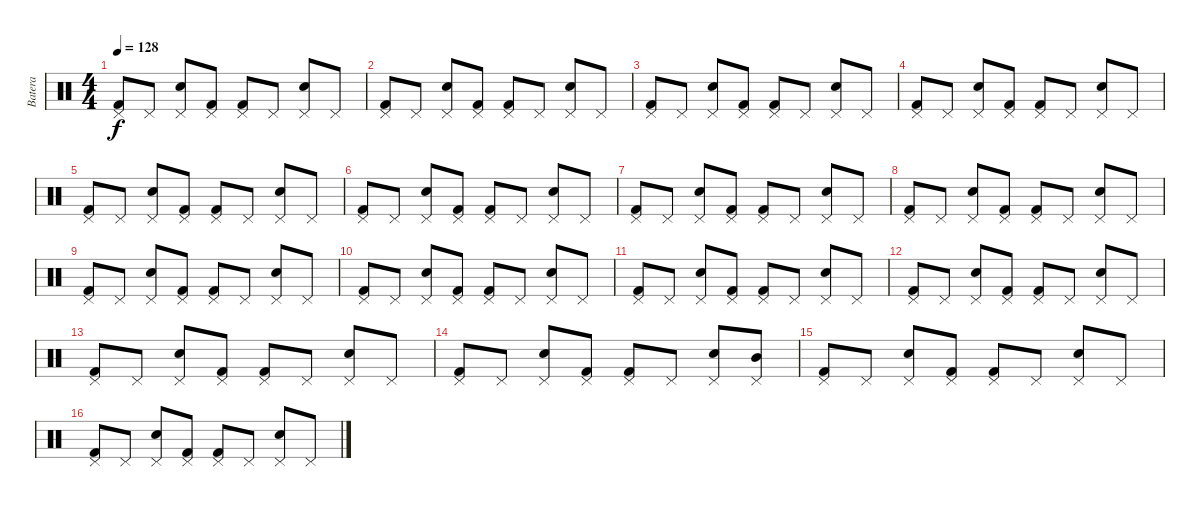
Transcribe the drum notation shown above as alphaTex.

\track ("Batera" "Batera") {instrument percussion}
\staff {score}
\articulation defaults
\ts (4 4)
\tempo 128
\clef neutral
\ks c
("Pedal Hi-Hat (hit)" "Kick (hit) 2").8{dy f} "Pedal Hi-Hat (hit)".8 ("Pedal Hi-Hat (hit)" "Snare (hit) 2").8 ("Pedal Hi-Hat (hit)" "Kick (hit) 2").8 ("Pedal Hi-Hat (hit)" "Kick (hit) 2").8 "Pedal Hi-Hat (hit)".8 ("Pedal Hi-Hat (hit)" "Snare (hit) 2").8 "Pedal Hi-Hat (hit)".8 |
("Pedal Hi-Hat (hit)" "Kick (hit) 2").8 "Pedal Hi-Hat (hit)".8 ("Pedal Hi-Hat (hit)" "Snare (hit) 2").8 ("Pedal Hi-Hat (hit)" "Kick (hit) 2").8 ("Pedal Hi-Hat (hit)" "Kick (hit) 2").8 "Pedal Hi-Hat (hit)".8 ("Pedal Hi-Hat (hit)" "Snare (hit) 2").8 "Pedal Hi-Hat (hit)".8 |
("Pedal Hi-Hat (hit)" "Kick (hit) 2").8 "Pedal Hi-Hat (hit)".8 ("Pedal Hi-Hat (hit)" "Snare (hit) 2").8 ("Pedal Hi-Hat (hit)" "Kick (hit) 2").8 ("Pedal Hi-Hat (hit)" "Kick (hit) 2").8 "Pedal Hi-Hat (hit)".8 ("Pedal Hi-Hat (hit)" "Snare (hit) 2").8 "Pedal Hi-Hat (hit)".8 |
("Pedal Hi-Hat (hit)" "Kick (hit) 2").8 "Pedal Hi-Hat (hit)".8 ("Pedal Hi-Hat (hit)" "Snare (hit) 2").8 ("Pedal Hi-Hat (hit)" "Kick (hit) 2").8 ("Pedal Hi-Hat (hit)" "Kick (hit) 2").8 "Pedal Hi-Hat (hit)".8 ("Pedal Hi-Hat (hit)" "Snare (hit) 2").8 "Pedal Hi-Hat (hit)".8 |
("Pedal Hi-Hat (hit)" "Kick (hit) 2").8 "Pedal Hi-Hat (hit)".8 ("Pedal Hi-Hat (hit)" "Snare (hit) 2").8 ("Pedal Hi-Hat (hit)" "Kick (hit) 2").8 ("Pedal Hi-Hat (hit)" "Kick (hit) 2").8 "Pedal Hi-Hat (hit)".8 ("Pedal Hi-Hat (hit)" "Snare (hit) 2").8 "Pedal Hi-Hat (hit)".8 |
("Pedal Hi-Hat (hit)" "Kick (hit) 2").8 "Pedal Hi-Hat (hit)".8 ("Pedal Hi-Hat (hit)" "Snare (hit) 2").8 ("Pedal Hi-Hat (hit)" "Kick (hit) 2").8 ("Pedal Hi-Hat (hit)" "Kick (hit) 2").8 "Pedal Hi-Hat (hit)".8 ("Pedal Hi-Hat (hit)" "Snare (hit) 2").8 "Pedal Hi-Hat (hit)".8 |
("Pedal Hi-Hat (hit)" "Kick (hit) 2").8 "Pedal Hi-Hat (hit)".8 ("Pedal Hi-Hat (hit)" "Snare (hit) 2").8 ("Pedal Hi-Hat (hit)" "Kick (hit) 2").8 ("Pedal Hi-Hat (hit)" "Kick (hit) 2").8 "Pedal Hi-Hat (hit)".8 ("Pedal Hi-Hat (hit)" "Snare (hit) 2").8 "Pedal Hi-Hat (hit)".8 |
("Pedal Hi-Hat (hit)" "Kick (hit) 2").8 "Pedal Hi-Hat (hit)".8 ("Pedal Hi-Hat (hit)" "Snare (hit) 2").8 ("Pedal Hi-Hat (hit)" "Kick (hit) 2").8 ("Pedal Hi-Hat (hit)" "Kick (hit) 2").8 "Pedal Hi-Hat (hit)".8 ("Pedal Hi-Hat (hit)" "Snare (hit) 2").8 "Pedal Hi-Hat (hit)".8 |
("Pedal Hi-Hat (hit)" "Kick (hit) 2").8 "Pedal Hi-Hat (hit)".8 ("Pedal Hi-Hat (hit)" "Snare (hit) 2").8 ("Pedal Hi-Hat (hit)" "Kick (hit) 2").8 ("Pedal Hi-Hat (hit)" "Kick (hit) 2").8 "Pedal Hi-Hat (hit)".8 ("Pedal Hi-Hat (hit)" "Snare (hit) 2").8 "Pedal Hi-Hat (hit)".8 |
("Pedal Hi-Hat (hit)" "Kick (hit) 2").8 "Pedal Hi-Hat (hit)".8 ("Pedal Hi-Hat (hit)" "Snare (hit) 2").8 ("Pedal Hi-Hat (hit)" "Kick (hit) 2").8 ("Pedal Hi-Hat (hit)" "Kick (hit) 2").8 "Pedal Hi-Hat (hit)".8 ("Pedal Hi-Hat (hit)" "Snare (hit) 2").8 "Pedal Hi-Hat (hit)".8 |
("Pedal Hi-Hat (hit)" "Kick (hit) 2").8 "Pedal Hi-Hat (hit)".8 ("Pedal Hi-Hat (hit)" "Snare (hit) 2").8 ("Pedal Hi-Hat (hit)" "Kick (hit) 2").8 ("Pedal Hi-Hat (hit)" "Kick (hit) 2").8 "Pedal Hi-Hat (hit)".8 ("Pedal Hi-Hat (hit)" "Snare (hit) 2").8 "Pedal Hi-Hat (hit)".8 |
("Pedal Hi-Hat (hit)" "Kick (hit) 2").8 "Pedal Hi-Hat (hit)".8 ("Pedal Hi-Hat (hit)" "Snare (hit) 2").8 ("Pedal Hi-Hat (hit)" "Kick (hit) 2").8 ("Pedal Hi-Hat (hit)" "Kick (hit) 2").8 "Pedal Hi-Hat (hit)".8 ("Pedal Hi-Hat (hit)" "Snare (hit) 2").8 "Pedal Hi-Hat (hit)".8 |
("Pedal Hi-Hat (hit)" "Kick (hit) 2").8 "Pedal Hi-Hat (hit)".8 ("Pedal Hi-Hat (hit)" "Snare (hit) 2").8 ("Pedal Hi-Hat (hit)" "Kick (hit) 2").8 ("Pedal Hi-Hat (hit)" "Kick (hit) 2").8 "Pedal Hi-Hat (hit)".8 ("Pedal Hi-Hat (hit)" "Snare (hit) 2").8 "Pedal Hi-Hat (hit)".8 |
("Pedal Hi-Hat (hit)" "Kick (hit) 2").8 "Pedal Hi-Hat (hit)".8 ("Pedal Hi-Hat (hit)" "Snare (hit) 2").8 ("Pedal Hi-Hat (hit)" "Kick (hit) 2").8 ("Pedal Hi-Hat (hit)" "Kick (hit) 2").8 "Pedal Hi-Hat (hit)".8 ("Pedal Hi-Hat (hit)" "Snare (hit) 2").8 ("Mid Tom (hit)" "Pedal Hi-Hat (hit)").8 |
("Pedal Hi-Hat (hit)" "Kick (hit) 2").8 "Pedal Hi-Hat (hit)".8 ("Pedal Hi-Hat (hit)" "Snare (hit) 2").8 ("Pedal Hi-Hat (hit)" "Kick (hit) 2").8 ("Pedal Hi-Hat (hit)" "Kick (hit) 2").8 "Pedal Hi-Hat (hit)".8 ("Pedal Hi-Hat (hit)" "Snare (hit) 2").8 "Pedal Hi-Hat (hit)".8 |
("Pedal Hi-Hat (hit)" "Kick (hit) 2").8 "Pedal Hi-Hat (hit)".8 ("Pedal Hi-Hat (hit)" "Snare (hit) 2").8 ("Pedal Hi-Hat (hit)" "Kick (hit) 2").8 ("Pedal Hi-Hat (hit)" "Kick (hit) 2").8 "Pedal Hi-Hat (hit)".8 ("Pedal Hi-Hat (hit)" "Snare (hit) 2").8 "Pedal Hi-Hat (hit)".8
